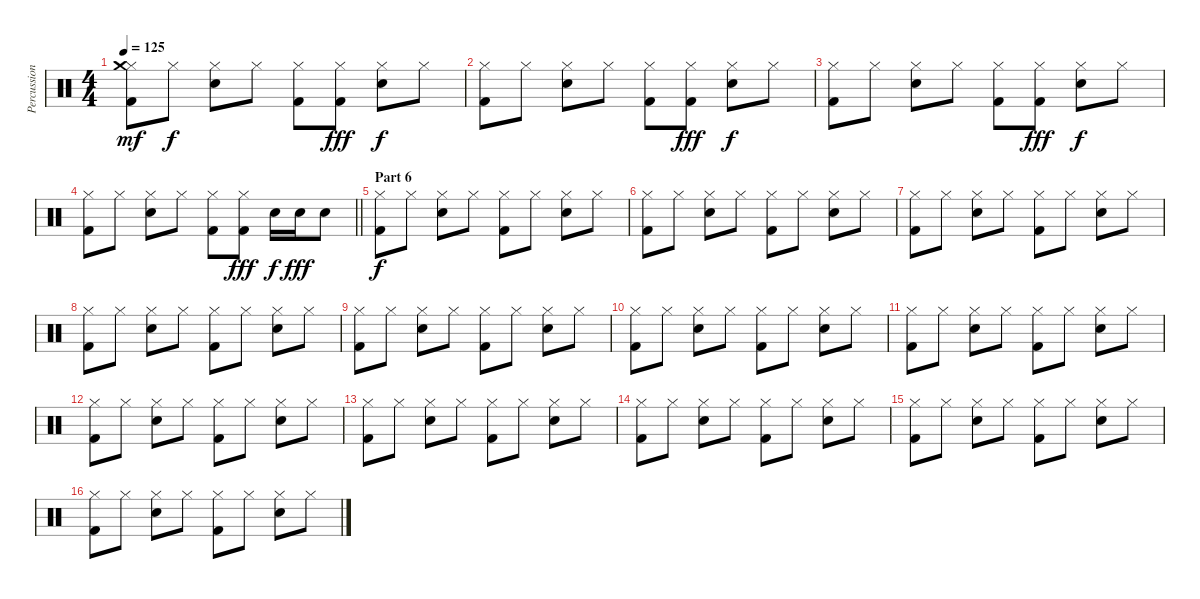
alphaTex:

\track ("Percussion" "Percussion") {instrument percussion}
\staff {score}
\articulation defaults
\ts (4 4)
\tempo 125
\clef neutral
\ks c
("Hi-Hat (closed)" "Kick (hit) 2" "Crash medium (hit)").8{dy mf} "Hi-Hat (closed)".8{dy f} ("Hi-Hat (closed)" "Electric Snare (hit)").8 "Hi-Hat (closed)".8 ("Hi-Hat (closed)" "Kick (hit) 2").8 ("Hi-Hat (closed)" "Kick (hit) 2").8{dy fff} ("Hi-Hat (closed)" "Electric Snare (hit)").8{dy f} "Hi-Hat (closed)".8 |
("Hi-Hat (closed)" "Kick (hit) 2").8 "Hi-Hat (closed)".8 ("Hi-Hat (closed)" "Electric Snare (hit)").8 "Hi-Hat (closed)".8 ("Hi-Hat (closed)" "Kick (hit) 2").8 ("Hi-Hat (closed)" "Kick (hit) 2").8{dy fff} ("Hi-Hat (closed)" "Electric Snare (hit)").8{dy f} "Hi-Hat (closed)".8 |
("Hi-Hat (closed)" "Kick (hit) 2").8 "Hi-Hat (closed)".8 ("Hi-Hat (closed)" "Electric Snare (hit)").8 "Hi-Hat (closed)".8 ("Hi-Hat (closed)" "Kick (hit) 2").8 ("Hi-Hat (closed)" "Kick (hit) 2").8{dy fff} ("Hi-Hat (closed)" "Electric Snare (hit)").8{dy f} "Hi-Hat (closed)".8 |
\barLineRight lightlight
("Hi-Hat (closed)" "Kick (hit) 2").8 "Hi-Hat (closed)".8 ("Hi-Hat (closed)" "Electric Snare (hit)").8 "Hi-Hat (closed)".8 ("Hi-Hat (closed)" "Kick (hit) 2").8 ("Hi-Hat (closed)" "Kick (hit) 2").8{dy fff} "Electric Snare (hit)".16{dy f} "Electric Snare (hit)".16{dy fff} "Electric Snare (hit)".8 |
\section ("" "Part 6")
("Hi-Hat (closed)" "Kick (hit) 2").8{dy f} "Hi-Hat (closed)".8 ("Hi-Hat (closed)" "Electric Snare (hit)").8 "Hi-Hat (closed)".8 ("Hi-Hat (closed)" "Kick (hit) 2").8 "Hi-Hat (closed)".8 ("Hi-Hat (closed)" "Electric Snare (hit)").8 "Hi-Hat (closed)".8 |
("Hi-Hat (closed)" "Kick (hit) 2").8 "Hi-Hat (closed)".8 ("Hi-Hat (closed)" "Electric Snare (hit)").8 "Hi-Hat (closed)".8 ("Hi-Hat (closed)" "Kick (hit) 2").8 "Hi-Hat (closed)".8 ("Hi-Hat (closed)" "Electric Snare (hit)").8 "Hi-Hat (closed)".8 |
("Hi-Hat (closed)" "Kick (hit) 2").8 "Hi-Hat (closed)".8 ("Hi-Hat (closed)" "Electric Snare (hit)").8 "Hi-Hat (closed)".8 ("Hi-Hat (closed)" "Kick (hit) 2").8 "Hi-Hat (closed)".8 ("Hi-Hat (closed)" "Electric Snare (hit)").8 "Hi-Hat (closed)".8 |
("Hi-Hat (closed)" "Kick (hit) 2").8 "Hi-Hat (closed)".8 ("Hi-Hat (closed)" "Electric Snare (hit)").8 "Hi-Hat (closed)".8 ("Hi-Hat (closed)" "Kick (hit) 2").8 "Hi-Hat (closed)".8 ("Hi-Hat (closed)" "Electric Snare (hit)").8 "Hi-Hat (closed)".8 |
("Hi-Hat (closed)" "Kick (hit) 2").8 "Hi-Hat (closed)".8 ("Hi-Hat (closed)" "Electric Snare (hit)").8 "Hi-Hat (closed)".8 ("Hi-Hat (closed)" "Kick (hit) 2").8 "Hi-Hat (closed)".8 ("Hi-Hat (closed)" "Electric Snare (hit)").8 "Hi-Hat (closed)".8 |
("Hi-Hat (closed)" "Kick (hit) 2").8 "Hi-Hat (closed)".8 ("Hi-Hat (closed)" "Electric Snare (hit)").8 "Hi-Hat (closed)".8 ("Hi-Hat (closed)" "Kick (hit) 2").8 "Hi-Hat (closed)".8 ("Hi-Hat (closed)" "Electric Snare (hit)").8 "Hi-Hat (closed)".8 |
("Hi-Hat (closed)" "Kick (hit) 2").8 "Hi-Hat (closed)".8 ("Hi-Hat (closed)" "Electric Snare (hit)").8 "Hi-Hat (closed)".8 ("Hi-Hat (closed)" "Kick (hit) 2").8 "Hi-Hat (closed)".8 ("Hi-Hat (closed)" "Electric Snare (hit)").8 "Hi-Hat (closed)".8 |
("Hi-Hat (closed)" "Kick (hit) 2").8 "Hi-Hat (closed)".8 ("Hi-Hat (closed)" "Electric Snare (hit)").8 "Hi-Hat (closed)".8 ("Hi-Hat (closed)" "Kick (hit) 2").8 "Hi-Hat (closed)".8 ("Hi-Hat (closed)" "Electric Snare (hit)").8 "Hi-Hat (closed)".8 |
("Hi-Hat (closed)" "Kick (hit) 2").8 "Hi-Hat (closed)".8 ("Hi-Hat (closed)" "Electric Snare (hit)").8 "Hi-Hat (closed)".8 ("Hi-Hat (closed)" "Kick (hit) 2").8 "Hi-Hat (closed)".8 ("Hi-Hat (closed)" "Electric Snare (hit)").8 "Hi-Hat (closed)".8 |
("Hi-Hat (closed)" "Kick (hit) 2").8 "Hi-Hat (closed)".8 ("Hi-Hat (closed)" "Electric Snare (hit)").8 "Hi-Hat (closed)".8 ("Hi-Hat (closed)" "Kick (hit) 2").8 "Hi-Hat (closed)".8 ("Hi-Hat (closed)" "Electric Snare (hit)").8 "Hi-Hat (closed)".8 |
("Hi-Hat (closed)" "Kick (hit) 2").8 "Hi-Hat (closed)".8 ("Hi-Hat (closed)" "Electric Snare (hit)").8 "Hi-Hat (closed)".8 ("Hi-Hat (closed)" "Kick (hit) 2").8 "Hi-Hat (closed)".8 ("Hi-Hat (closed)" "Electric Snare (hit)").8 "Hi-Hat (closed)".8 |
("Hi-Hat (closed)" "Kick (hit) 2").8 "Hi-Hat (closed)".8 ("Hi-Hat (closed)" "Electric Snare (hit)").8 "Hi-Hat (closed)".8 ("Hi-Hat (closed)" "Kick (hit) 2").8 "Hi-Hat (closed)".8 ("Hi-Hat (closed)" "Electric Snare (hit)").8 "Hi-Hat (closed)".8
